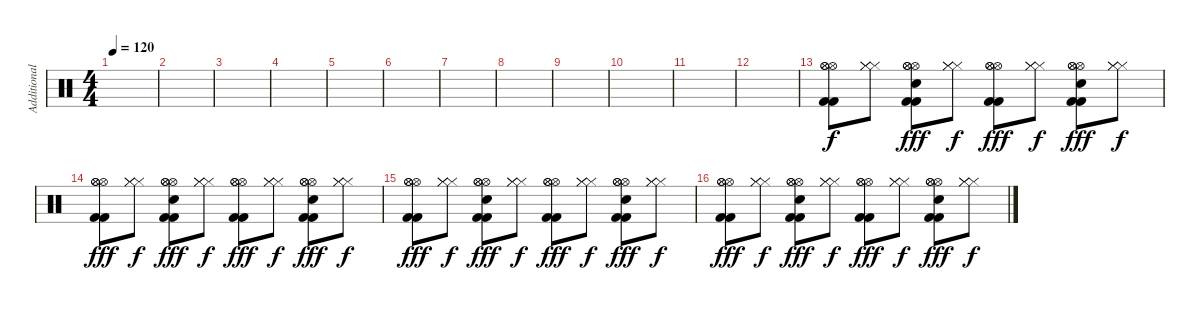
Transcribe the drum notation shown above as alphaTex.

\track ("Additional Rythm" "Additional") {instrument percussion}
\staff {score}
\articulation defaults
\ts (4 4)
\tempo 120
\clef neutral
\ks c
|
|
|
|
|
|
|
|
|
|
|
|
("Hi-Hat (open)" "Hi-Hat (open)" "Hi-Hat (open)" "Kick (hit) 2" "Kick (hit) 2").8 ("Hi-Hat (closed)" "Hi-Hat (closed)" "Hi-Hat (closed)").8{dy f} ("Hi-Hat (open)" "Hi-Hat (open)" "Hi-Hat (open)" "Kick (hit) 2" "Kick (hit) 2" "Snare (hit) 2").8{dy fff} ("Hi-Hat (closed)" "Hi-Hat (closed)" "Hi-Hat (closed)").8{dy f} ("Hi-Hat (open)" "Hi-Hat (open)" "Hi-Hat (open)" "Kick (hit) 2" "Kick (hit) 2").8{dy fff} ("Hi-Hat (closed)" "Hi-Hat (closed)" "Hi-Hat (closed)").8{dy f} ("Hi-Hat (open)" "Hi-Hat (open)" "Hi-Hat (open)" "Kick (hit) 2" "Kick (hit) 2" "Snare (hit) 2").8{dy fff} ("Hi-Hat (closed)" "Hi-Hat (closed)" "Hi-Hat (closed)").8{dy f} |
("Hi-Hat (open)" "Hi-Hat (open)" "Hi-Hat (open)" "Kick (hit) 2" "Kick (hit) 2").8{dy fff} ("Hi-Hat (closed)" "Hi-Hat (closed)" "Hi-Hat (closed)").8{dy f} ("Hi-Hat (open)" "Hi-Hat (open)" "Hi-Hat (open)" "Kick (hit) 2" "Kick (hit) 2" "Snare (hit) 2").8{dy fff} ("Hi-Hat (closed)" "Hi-Hat (closed)" "Hi-Hat (closed)").8{dy f} ("Hi-Hat (open)" "Hi-Hat (open)" "Hi-Hat (open)" "Kick (hit) 2" "Kick (hit) 2").8{dy fff} ("Hi-Hat (closed)" "Hi-Hat (closed)" "Hi-Hat (closed)").8{dy f} ("Hi-Hat (open)" "Hi-Hat (open)" "Hi-Hat (open)" "Kick (hit) 2" "Kick (hit) 2" "Snare (hit) 2").8{dy fff} ("Hi-Hat (closed)" "Hi-Hat (closed)" "Hi-Hat (closed)").8{dy f} |
("Hi-Hat (open)" "Hi-Hat (open)" "Hi-Hat (open)" "Kick (hit) 2" "Kick (hit) 2").8{dy fff} ("Hi-Hat (closed)" "Hi-Hat (closed)" "Hi-Hat (closed)").8{dy f} ("Hi-Hat (open)" "Hi-Hat (open)" "Hi-Hat (open)" "Kick (hit) 2" "Kick (hit) 2" "Snare (hit) 2").8{dy fff} ("Hi-Hat (closed)" "Hi-Hat (closed)" "Hi-Hat (closed)").8{dy f} ("Hi-Hat (open)" "Hi-Hat (open)" "Hi-Hat (open)" "Kick (hit) 2" "Kick (hit) 2").8{dy fff} ("Hi-Hat (closed)" "Hi-Hat (closed)" "Hi-Hat (closed)").8{dy f} ("Hi-Hat (open)" "Hi-Hat (open)" "Hi-Hat (open)" "Kick (hit) 2" "Kick (hit) 2" "Snare (hit) 2").8{dy fff} ("Hi-Hat (closed)" "Hi-Hat (closed)" "Hi-Hat (closed)").8{dy f} |
("Hi-Hat (open)" "Hi-Hat (open)" "Hi-Hat (open)" "Kick (hit) 2" "Kick (hit) 2").8{dy fff} ("Hi-Hat (closed)" "Hi-Hat (closed)" "Hi-Hat (closed)").8{dy f} ("Hi-Hat (open)" "Hi-Hat (open)" "Hi-Hat (open)" "Kick (hit) 2" "Kick (hit) 2" "Snare (hit) 2").8{dy fff} ("Hi-Hat (closed)" "Hi-Hat (closed)" "Hi-Hat (closed)").8{dy f} ("Hi-Hat (open)" "Hi-Hat (open)" "Hi-Hat (open)" "Kick (hit) 2" "Kick (hit) 2").8{dy fff} ("Hi-Hat (closed)" "Hi-Hat (closed)" "Hi-Hat (closed)").8{dy f} ("Hi-Hat (open)" "Hi-Hat (open)" "Hi-Hat (open)" "Kick (hit) 2" "Kick (hit) 2" "Snare (hit) 2").8{dy fff} ("Hi-Hat (closed)" "Hi-Hat (closed)" "Hi-Hat (closed)").8{dy f}
